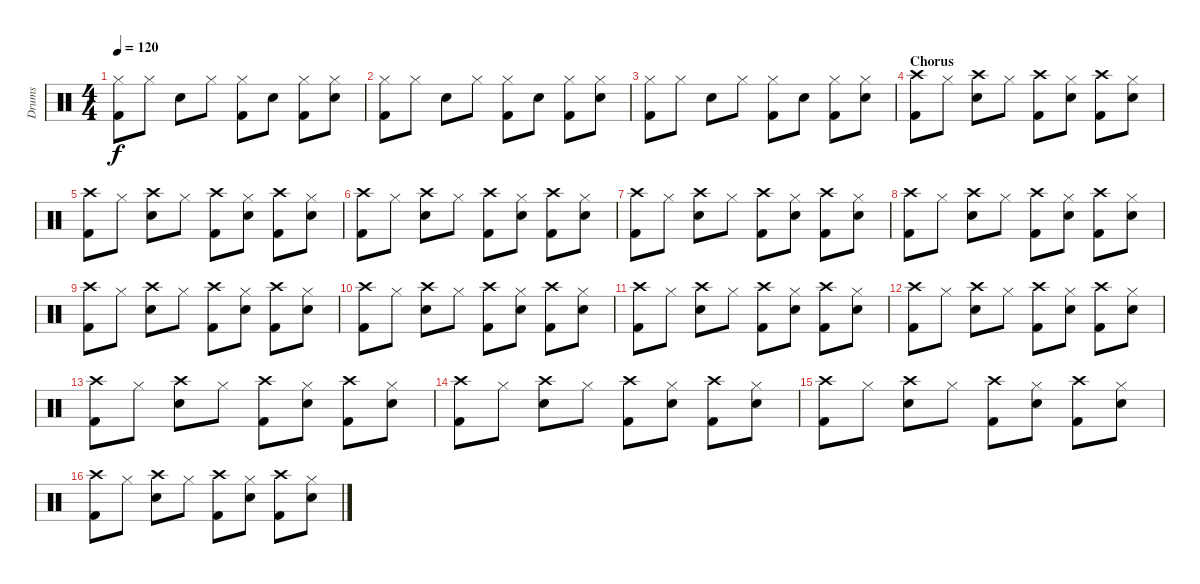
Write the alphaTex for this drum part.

\track ("Drums" "Drums") {instrument percussion}
\staff {score}
\articulation defaults
\ts (4 4)
\tempo 120
\clef neutral
\ks c
("Kick (hit) 2" "Hi-Hat (closed)").8{dy f} "Hi-Hat (closed)".8 "Snare (hit) 2".8 "Hi-Hat (closed)".8 ("Kick (hit) 2" "Hi-Hat (closed)").8 "Snare (hit) 2".8 ("Kick (hit) 2" "Hi-Hat (closed)").8 ("Snare (hit) 2" "Hi-Hat (closed)").8 |
("Kick (hit) 2" "Hi-Hat (closed)").8 "Hi-Hat (closed)".8 "Snare (hit) 2".8 "Hi-Hat (closed)".8 ("Kick (hit) 2" "Hi-Hat (closed)").8 "Snare (hit) 2".8 ("Kick (hit) 2" "Hi-Hat (closed)").8 ("Snare (hit) 2" "Hi-Hat (closed)").8 |
("Kick (hit) 2" "Hi-Hat (closed)").8 "Hi-Hat (closed)".8 "Snare (hit) 2".8 "Hi-Hat (closed)".8 ("Kick (hit) 2" "Hi-Hat (closed)").8 "Snare (hit) 2".8 ("Kick (hit) 2" "Hi-Hat (closed)").8 ("Snare (hit) 2" "Hi-Hat (closed)").8 |
\section ("" "Chorus")
("Kick (hit) 2" "Crash high (hit)").8 "Hi-Hat (closed)".8 ("Snare (hit) 2" "Crash high (hit)").8 "Hi-Hat (closed)".8 ("Kick (hit) 2" "Crash high (hit)").8 ("Snare (hit) 2" "Hi-Hat (closed)").8 ("Kick (hit) 2" "Crash high (hit)").8 ("Snare (hit) 2" "Hi-Hat (closed)").8 |
("Kick (hit) 2" "Crash high (hit)").8 "Hi-Hat (closed)".8 ("Snare (hit) 2" "Crash high (hit)").8 "Hi-Hat (closed)".8 ("Kick (hit) 2" "Crash high (hit)").8 ("Snare (hit) 2" "Hi-Hat (closed)").8 ("Kick (hit) 2" "Crash high (hit)").8 ("Snare (hit) 2" "Hi-Hat (closed)").8 |
("Kick (hit) 2" "Crash high (hit)").8 "Hi-Hat (closed)".8 ("Snare (hit) 2" "Crash high (hit)").8 "Hi-Hat (closed)".8 ("Kick (hit) 2" "Crash high (hit)").8 ("Snare (hit) 2" "Hi-Hat (closed)").8 ("Kick (hit) 2" "Crash high (hit)").8 ("Snare (hit) 2" "Hi-Hat (closed)").8 |
("Kick (hit) 2" "Crash high (hit)").8 "Hi-Hat (closed)".8 ("Snare (hit) 2" "Crash high (hit)").8 "Hi-Hat (closed)".8 ("Kick (hit) 2" "Crash high (hit)").8 ("Snare (hit) 2" "Hi-Hat (closed)").8 ("Kick (hit) 2" "Crash high (hit)").8 ("Snare (hit) 2" "Hi-Hat (closed)").8 |
("Kick (hit) 2" "Crash high (hit)").8 "Hi-Hat (closed)".8 ("Snare (hit) 2" "Crash high (hit)").8 "Hi-Hat (closed)".8 ("Kick (hit) 2" "Crash high (hit)").8 ("Snare (hit) 2" "Hi-Hat (closed)").8 ("Kick (hit) 2" "Crash high (hit)").8 ("Snare (hit) 2" "Hi-Hat (closed)").8 |
("Kick (hit) 2" "Crash high (hit)").8 "Hi-Hat (closed)".8 ("Snare (hit) 2" "Crash high (hit)").8 "Hi-Hat (closed)".8 ("Kick (hit) 2" "Crash high (hit)").8 ("Snare (hit) 2" "Hi-Hat (closed)").8 ("Kick (hit) 2" "Crash high (hit)").8 ("Snare (hit) 2" "Hi-Hat (closed)").8 |
("Kick (hit) 2" "Crash high (hit)").8 "Hi-Hat (closed)".8 ("Snare (hit) 2" "Crash high (hit)").8 "Hi-Hat (closed)".8 ("Kick (hit) 2" "Crash high (hit)").8 ("Snare (hit) 2" "Hi-Hat (closed)").8 ("Kick (hit) 2" "Crash high (hit)").8 ("Snare (hit) 2" "Hi-Hat (closed)").8 |
("Kick (hit) 2" "Crash high (hit)").8 "Hi-Hat (closed)".8 ("Snare (hit) 2" "Crash high (hit)").8 "Hi-Hat (closed)".8 ("Kick (hit) 2" "Crash high (hit)").8 ("Snare (hit) 2" "Hi-Hat (closed)").8 ("Kick (hit) 2" "Crash high (hit)").8 ("Snare (hit) 2" "Hi-Hat (closed)").8 |
("Kick (hit) 2" "Crash high (hit)").8 "Hi-Hat (closed)".8 ("Snare (hit) 2" "Crash high (hit)").8 "Hi-Hat (closed)".8 ("Kick (hit) 2" "Crash high (hit)").8 ("Snare (hit) 2" "Hi-Hat (closed)").8 ("Kick (hit) 2" "Crash high (hit)").8 ("Snare (hit) 2" "Hi-Hat (closed)").8 |
("Kick (hit) 2" "Crash high (hit)").8 "Hi-Hat (closed)".8 ("Snare (hit) 2" "Crash high (hit)").8 "Hi-Hat (closed)".8 ("Kick (hit) 2" "Crash high (hit)").8 ("Snare (hit) 2" "Hi-Hat (closed)").8 ("Kick (hit) 2" "Crash high (hit)").8 ("Snare (hit) 2" "Hi-Hat (closed)").8 |
("Kick (hit) 2" "Crash high (hit)").8 "Hi-Hat (closed)".8 ("Snare (hit) 2" "Crash high (hit)").8 "Hi-Hat (closed)".8 ("Kick (hit) 2" "Crash high (hit)").8 ("Snare (hit) 2" "Hi-Hat (closed)").8 ("Kick (hit) 2" "Crash high (hit)").8 ("Snare (hit) 2" "Hi-Hat (closed)").8 |
("Kick (hit) 2" "Crash high (hit)").8 "Hi-Hat (closed)".8 ("Snare (hit) 2" "Crash high (hit)").8 "Hi-Hat (closed)".8 ("Kick (hit) 2" "Crash high (hit)").8 ("Snare (hit) 2" "Hi-Hat (closed)").8 ("Kick (hit) 2" "Crash high (hit)").8 ("Snare (hit) 2" "Hi-Hat (closed)").8 |
("Kick (hit) 2" "Crash high (hit)").8 "Hi-Hat (closed)".8 ("Snare (hit) 2" "Crash high (hit)").8 "Hi-Hat (closed)".8 ("Kick (hit) 2" "Crash high (hit)").8 ("Snare (hit) 2" "Hi-Hat (closed)").8 ("Kick (hit) 2" "Crash high (hit)").8 ("Snare (hit) 2" "Hi-Hat (closed)").8
